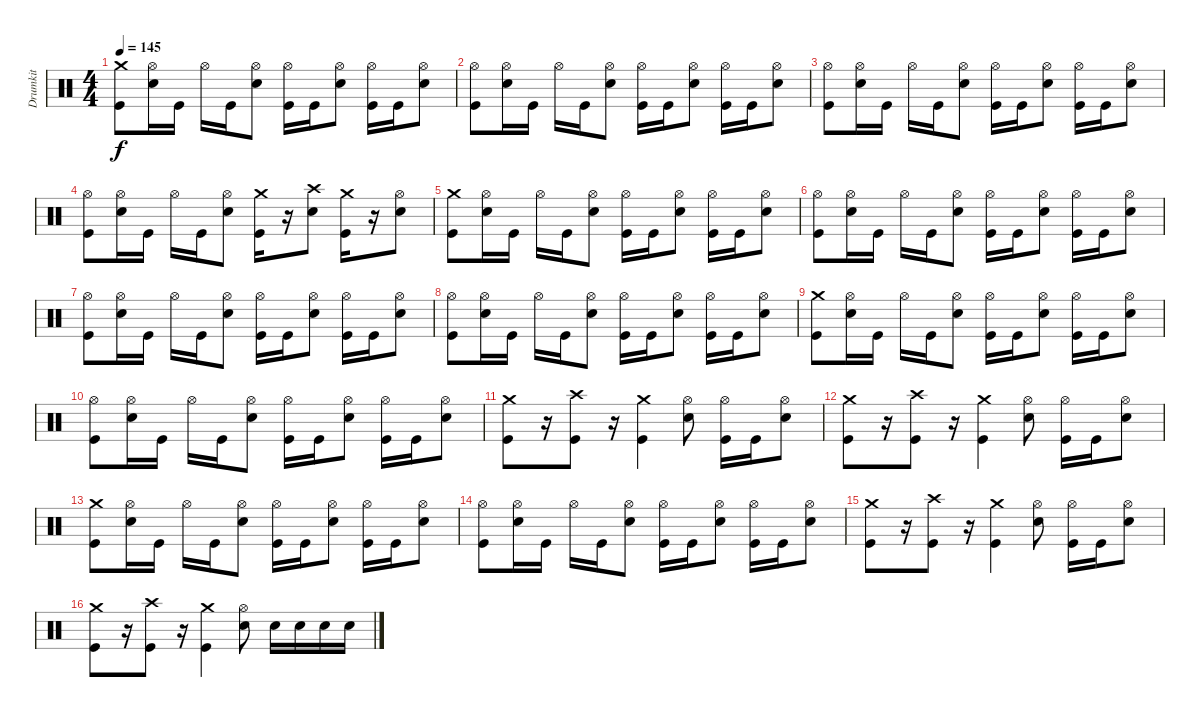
\track ("Drumkit" "Drumkit") {instrument percussion}
\staff {score}
\articulation defaults
\ts (4 4)
\tempo 145
\clef neutral
\ks c
("Kick (hit)" "Crash medium (hit)").8{dy f} ("Snare (hit) 2" "Hi-Hat (open)").16 "Kick (hit)".16 "Hi-Hat (open)".16 "Kick (hit)".16 ("Snare (hit) 2" "Hi-Hat (open)").8 ("Hi-Hat (open)" "Kick (hit)").16 "Kick (hit)".16 ("Snare (hit) 2" "Hi-Hat (open)").8 ("Hi-Hat (open)" "Kick (hit)").16 "Kick (hit)".16 ("Snare (hit) 2" "Hi-Hat (open)").8 |
("Kick (hit)" "Hi-Hat (open)").8 ("Snare (hit) 2" "Hi-Hat (open)").16 "Kick (hit)".16 "Hi-Hat (open)".16 "Kick (hit)".16 ("Snare (hit) 2" "Hi-Hat (open)").8 ("Hi-Hat (open)" "Kick (hit)").16 "Kick (hit)".16 ("Snare (hit) 2" "Hi-Hat (open)").8 ("Hi-Hat (open)" "Kick (hit)").16 "Kick (hit)".16 ("Snare (hit) 2" "Hi-Hat (open)").8 |
("Kick (hit)" "Hi-Hat (open)").8 ("Snare (hit) 2" "Hi-Hat (open)").16 "Kick (hit)".16 "Hi-Hat (open)".16 "Kick (hit)".16 ("Snare (hit) 2" "Hi-Hat (open)").8 ("Hi-Hat (open)" "Kick (hit)").16 "Kick (hit)".16 ("Snare (hit) 2" "Hi-Hat (open)").8 ("Hi-Hat (open)" "Kick (hit)").16 "Kick (hit)".16 ("Snare (hit) 2" "Hi-Hat (open)").8 |
("Kick (hit)" "Hi-Hat (open)").8 ("Snare (hit) 2" "Hi-Hat (open)").16 "Kick (hit)".16 "Hi-Hat (open)".16 "Kick (hit)".16 ("Snare (hit) 2" "Hi-Hat (open)").8 ("Kick (hit)" "Crash medium (hit)").16 r.16 ("Snare (hit) 2" "Crash high (hit)").8 ("Kick (hit)" "Crash medium (hit)").16 r.16 ("Snare (hit) 2" "Hi-Hat (open)").8 |
("Kick (hit)" "Crash medium (hit)").8 ("Snare (hit) 2" "Hi-Hat (open)").16 "Kick (hit)".16 "Hi-Hat (open)".16 "Kick (hit)".16 ("Snare (hit) 2" "Hi-Hat (open)").8 ("Hi-Hat (open)" "Kick (hit)").16 "Kick (hit)".16 ("Snare (hit) 2" "Hi-Hat (open)").8 ("Hi-Hat (open)" "Kick (hit)").16 "Kick (hit)".16 ("Snare (hit) 2" "Hi-Hat (open)").8 |
("Kick (hit)" "Hi-Hat (open)").8 ("Snare (hit) 2" "Hi-Hat (open)").16 "Kick (hit)".16 "Hi-Hat (open)".16 "Kick (hit)".16 ("Snare (hit) 2" "Hi-Hat (open)").8 ("Hi-Hat (open)" "Kick (hit)").16 "Kick (hit)".16 ("Snare (hit) 2" "Hi-Hat (open)").8 ("Hi-Hat (open)" "Kick (hit)").16 "Kick (hit)".16 ("Snare (hit) 2" "Hi-Hat (open)").8 |
("Kick (hit)" "Hi-Hat (open)").8 ("Snare (hit) 2" "Hi-Hat (open)").16 "Kick (hit)".16 "Hi-Hat (open)".16 "Kick (hit)".16 ("Snare (hit) 2" "Hi-Hat (open)").8 ("Hi-Hat (open)" "Kick (hit)").16 "Kick (hit)".16 ("Snare (hit) 2" "Hi-Hat (open)").8 ("Hi-Hat (open)" "Kick (hit)").16 "Kick (hit)".16 ("Snare (hit) 2" "Hi-Hat (open)").8 |
("Kick (hit)" "Hi-Hat (open)").8 ("Snare (hit) 2" "Hi-Hat (open)").16 "Kick (hit)".16 "Hi-Hat (open)".16 "Kick (hit)".16 ("Snare (hit) 2" "Hi-Hat (open)").8 ("Hi-Hat (open)" "Kick (hit)").16 "Kick (hit)".16 ("Snare (hit) 2" "Hi-Hat (open)").8 ("Hi-Hat (open)" "Kick (hit)").16 "Kick (hit)".16 ("Snare (hit) 2" "Hi-Hat (open)").8 |
("Kick (hit)" "Crash medium (hit)").8 ("Snare (hit) 2" "Hi-Hat (open)").16 "Kick (hit)".16 "Hi-Hat (open)".16 "Kick (hit)".16 ("Snare (hit) 2" "Hi-Hat (open)").8 ("Hi-Hat (open)" "Kick (hit)").16 "Kick (hit)".16 ("Snare (hit) 2" "Hi-Hat (open)").8 ("Hi-Hat (open)" "Kick (hit)").16 "Kick (hit)".16 ("Snare (hit) 2" "Hi-Hat (open)").8 |
("Kick (hit)" "Hi-Hat (open)").8 ("Snare (hit) 2" "Hi-Hat (open)").16 "Kick (hit)".16 "Hi-Hat (open)".16 "Kick (hit)".16 ("Snare (hit) 2" "Hi-Hat (open)").8 ("Hi-Hat (open)" "Kick (hit)").16 "Kick (hit)".16 ("Snare (hit) 2" "Hi-Hat (open)").8 ("Hi-Hat (open)" "Kick (hit)").16 "Kick (hit)".16 ("Snare (hit) 2" "Hi-Hat (open)").8 |
("Crash medium (hit)" "Kick (hit)").8 r.16 ("Crash high (hit)" "Kick (hit)").8 r.16 ("Crash medium (hit)" "Kick (hit)").4 ("Snare (hit) 2" "Hi-Hat (open)").8 ("Hi-Hat (open)" "Kick (hit)").16 "Kick (hit)".16 ("Snare (hit) 2" "Hi-Hat (open)").8 |
("Crash medium (hit)" "Kick (hit)").8 r.16 ("Crash high (hit)" "Kick (hit)").8 r.16 ("Crash medium (hit)" "Kick (hit)").4 ("Snare (hit) 2" "Hi-Hat (open)").8 ("Hi-Hat (open)" "Kick (hit)").16 "Kick (hit)".16 ("Snare (hit) 2" "Hi-Hat (open)").8 |
("Kick (hit)" "Crash medium (hit)").8 ("Snare (hit) 2" "Hi-Hat (open)").16 "Kick (hit)".16 "Hi-Hat (open)".16 "Kick (hit)".16 ("Snare (hit) 2" "Hi-Hat (open)").8 ("Hi-Hat (open)" "Kick (hit)").16 "Kick (hit)".16 ("Snare (hit) 2" "Hi-Hat (open)").8 ("Hi-Hat (open)" "Kick (hit)").16 "Kick (hit)".16 ("Snare (hit) 2" "Hi-Hat (open)").8 |
("Kick (hit)" "Hi-Hat (open)").8 ("Snare (hit) 2" "Hi-Hat (open)").16 "Kick (hit)".16 "Hi-Hat (open)".16 "Kick (hit)".16 ("Snare (hit) 2" "Hi-Hat (open)").8 ("Hi-Hat (open)" "Kick (hit)").16 "Kick (hit)".16 ("Snare (hit) 2" "Hi-Hat (open)").8 ("Hi-Hat (open)" "Kick (hit)").16 "Kick (hit)".16 ("Snare (hit) 2" "Hi-Hat (open)").8 |
("Crash medium (hit)" "Kick (hit)").8 r.16 ("Crash high (hit)" "Kick (hit)").8 r.16 ("Crash medium (hit)" "Kick (hit)").4 ("Snare (hit) 2" "Hi-Hat (open)").8 ("Hi-Hat (open)" "Kick (hit)").16 "Kick (hit)".16 ("Snare (hit) 2" "Hi-Hat (open)").8 |
("Crash medium (hit)" "Kick (hit)").8 r.16 ("Crash high (hit)" "Kick (hit)").8 r.16 ("Crash medium (hit)" "Kick (hit)").4 ("Snare (hit) 2" "Hi-Hat (open)").8 "Snare (hit) 2".16 "Snare (hit) 2".16 "Snare (hit) 2".16 "Snare (hit) 2".16
